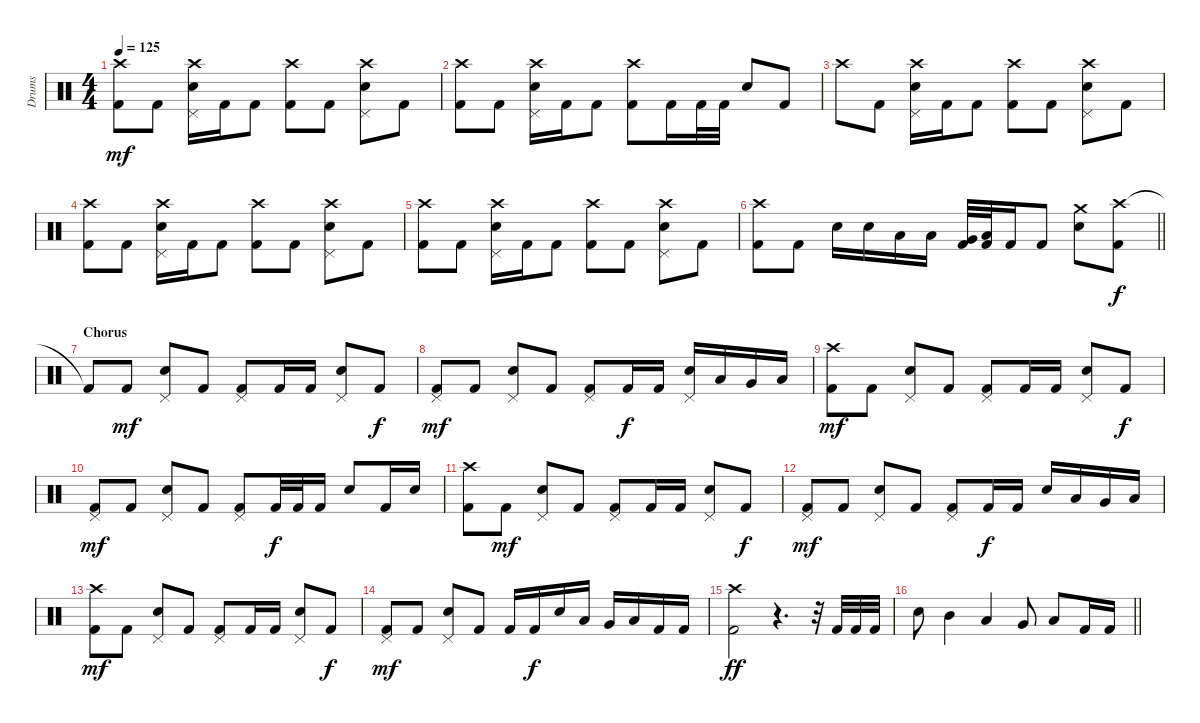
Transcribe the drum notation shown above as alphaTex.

\track ("Drums" "Drums") {instrument percussion}
\staff {score}
\articulation defaults
\ts (4 4)
\tempo 125
\clef neutral
\ks c
("Crash high (hit)" "Kick (hit) 2").8{dy mf} "Kick (hit) 2".8 ("Pedal Hi-Hat (hit)" "Crash high (hit)" "Snare (hit) 2").16 "Kick (hit) 2".16 "Kick (hit) 2".8 ("Crash high (hit)" "Kick (hit) 2").8 "Kick (hit) 2".8 ("Pedal Hi-Hat (hit)" "Crash high (hit)" "Snare (hit) 2").8 "Kick (hit) 2".8 |
("Crash high (hit)" "Kick (hit) 2").8 "Kick (hit) 2".8 ("Pedal Hi-Hat (hit)" "Crash high (hit)" "Snare (hit) 2").16 "Kick (hit) 2".16 "Kick (hit) 2".8 ("Crash high (hit)" "Kick (hit) 2").8 "Kick (hit) 2".16 "Kick (hit) 2".32 "Kick (hit) 2".32 "Snare (hit) 2".8 "Kick (hit) 2".8 |
"Crash high (hit)".8 "Kick (hit) 2".8 ("Pedal Hi-Hat (hit)" "Crash high (hit)" "Snare (hit) 2").16 "Kick (hit) 2".16 "Kick (hit) 2".8 ("Crash high (hit)" "Kick (hit) 2").8 "Kick (hit) 2".8 ("Pedal Hi-Hat (hit)" "Crash high (hit)" "Snare (hit) 2").8 "Kick (hit) 2".8 |
("Crash high (hit)" "Kick (hit) 2").8 "Kick (hit) 2".8 ("Pedal Hi-Hat (hit)" "Crash high (hit)" "Snare (hit) 2").16 "Kick (hit) 2".16 "Kick (hit) 2".8 ("Crash high (hit)" "Kick (hit) 2").8 "Kick (hit) 2".8 ("Pedal Hi-Hat (hit)" "Crash high (hit)" "Snare (hit) 2").8 "Kick (hit) 2".8 |
("Crash high (hit)" "Kick (hit) 2").8 "Kick (hit) 2".8 ("Pedal Hi-Hat (hit)" "Crash high (hit)" "Snare (hit) 2").16 "Kick (hit) 2".16 "Kick (hit) 2".8 ("Crash high (hit)" "Kick (hit) 2").8 "Kick (hit) 2".8 ("Pedal Hi-Hat (hit)" "Crash high (hit)" "Snare (hit) 2").8 "Kick (hit) 2".8 |
\barLineRight lightlight
("Crash high (hit)" "Kick (hit) 2").8 "Kick (hit) 2".8 "Snare (hit) 2".16 "Snare (hit) 2".16 "Low Tom (hit)".16 "Low Tom (hit)".16 ("Very Low Tom (hit)" "Kick (hit) 2").32 ("Low Floor Tom (hit)" "Kick (hit) 2").32 "Kick (hit) 2".16 "Kick (hit) 2".8 ("Crash medium (hit)" "Snare (hit) 2").8 ("Crash high (hit)" "Kick (hit) 2").8{dy f} |
\section ("" "Chorus")
"Kick (hit) 2"{t}.8 "Kick (hit) 2".8{dy mf} ("Pedal Hi-Hat (hit)" "Snare (hit) 2").8 "Kick (hit) 2".8 ("Pedal Hi-Hat (hit)" "Kick (hit) 2").8 "Kick (hit) 2".16 "Kick (hit) 2".16 ("Pedal Hi-Hat (hit)" "Snare (hit) 2").8 "Kick (hit) 2".8{dy f} |
("Pedal Hi-Hat (hit)" "Kick (hit) 2").8{dy mf} "Kick (hit) 2".8 ("Pedal Hi-Hat (hit)" "Snare (hit) 2").8 "Kick (hit) 2".8 ("Pedal Hi-Hat (hit)" "Kick (hit) 2").8 "Kick (hit) 2".16{dy f} "Kick (hit) 2".16 ("Pedal Hi-Hat (hit)" "Snare (hit) 2").16 "Low Tom (hit)".16 "Very Low Tom (hit)".16 "Low Tom (hit)".16 |
("Crash high (hit)" "Kick (hit) 2").8{dy mf} "Kick (hit) 2".8 ("Pedal Hi-Hat (hit)" "Snare (hit) 2").8 "Kick (hit) 2".8 ("Pedal Hi-Hat (hit)" "Kick (hit) 2").8 "Kick (hit) 2".16 "Kick (hit) 2".16 ("Pedal Hi-Hat (hit)" "Snare (hit) 2").8 "Kick (hit) 2".8{dy f} |
("Pedal Hi-Hat (hit)" "Kick (hit) 2").8{dy mf} "Kick (hit) 2".8 ("Pedal Hi-Hat (hit)" "Snare (hit) 2").8 "Kick (hit) 2".8 ("Pedal Hi-Hat (hit)" "Kick (hit) 2").8 "Kick (hit) 2".32{dy f} "Kick (hit) 2".32 "Kick (hit) 2".16 "Snare (hit) 2".8 "Kick (hit) 2".16 "Snare (hit) 2".16 |
("Crash high (hit)" "Kick (hit) 2").8 "Kick (hit) 2".8{dy mf} ("Pedal Hi-Hat (hit)" "Snare (hit) 2").8 "Kick (hit) 2".8 ("Pedal Hi-Hat (hit)" "Kick (hit) 2").8 "Kick (hit) 2".16 "Kick (hit) 2".16 ("Pedal Hi-Hat (hit)" "Snare (hit) 2").8 "Kick (hit) 2".8{dy f} |
("Pedal Hi-Hat (hit)" "Kick (hit) 2").8{dy mf} "Kick (hit) 2".8 ("Pedal Hi-Hat (hit)" "Snare (hit) 2").8 "Kick (hit) 2".8 ("Pedal Hi-Hat (hit)" "Kick (hit) 2").8 "Kick (hit) 2".16{dy f} "Kick (hit) 2".16 "Snare (hit) 2".16 "Low Tom (hit)".16 "Very Low Tom (hit)".16 "Low Tom (hit)".16 |
("Crash high (hit)" "Kick (hit) 2").8{dy mf} "Kick (hit) 2".8 ("Pedal Hi-Hat (hit)" "Snare (hit) 2").8 "Kick (hit) 2".8 ("Pedal Hi-Hat (hit)" "Kick (hit) 2").8 "Kick (hit) 2".16 "Kick (hit) 2".16 ("Pedal Hi-Hat (hit)" "Snare (hit) 2").8 "Kick (hit) 2".8{dy f} |
("Pedal Hi-Hat (hit)" "Kick (hit) 2").8{dy mf} "Kick (hit) 2".8 ("Pedal Hi-Hat (hit)" "Snare (hit) 2").8 "Kick (hit) 2".8 "Kick (hit) 2".16 "Kick (hit) 2".16{dy f} "Snare (hit) 2".16 "Low Tom (hit)".16 "Very Low Tom (hit)".16 "Low Floor Tom (hit)".16 "Kick (hit) 2".16 "Kick (hit) 2".16 |
("Crash high (hit)" "Kick (hit) 2").2{dy ff} r.4{d} r.32 "Kick (hit) 2".32 "Kick (hit) 2".32 "Kick (hit) 2".32 |
\barLineRight lightlight "Snare (hit) 2".8 "Mid Tom (hit)".4 "Low Tom (hit)".4 "Very Low Tom (hit)".8 "Low Floor Tom (hit)".8 "Kick (hit) 2".16 "Kick (hit) 2".16
